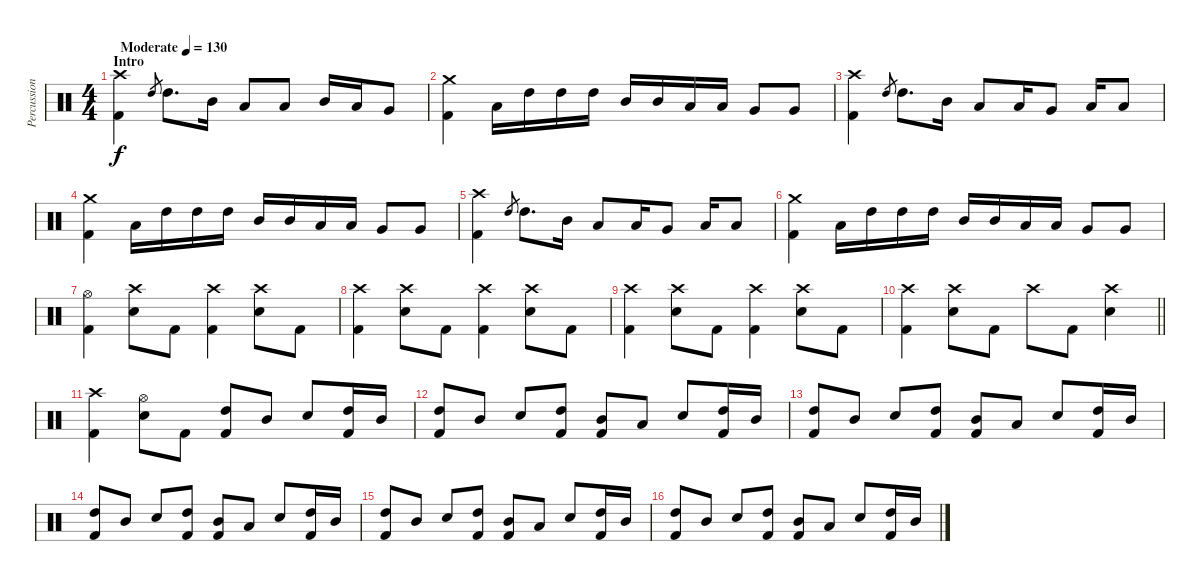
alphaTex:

\track ("Percussion" "Percussion") {instrument percussion}
\staff {score}
\articulation defaults
\ts (4 4)
\section ("" "Intro")
\tempo (130 "Moderate")
\clef neutral
\ks c
("Crash high (hit)" "Kick (hit) 2").4{dy f} "High Tom (hit)".8{gr} "High Tom (hit)".8{d} "Mid Tom (hit)".16 "Low Tom (hit)".8 "Low Tom (hit)".8 "Mid Tom (hit)".16 "Low Tom (hit)".16 "Very Low Tom (hit)".8 |
("Crash medium (hit)" "Kick (hit) 2").4 "Low Tom (hit)".16 "High Tom (hit)".16 "High Tom (hit)".16 "High Tom (hit)".16 "Mid Tom (hit)".16 "Mid Tom (hit)".16 "Low Tom (hit)".16 "Low Tom (hit)".16 "Very Low Tom (hit)".8 "Very Low Tom (hit)".8 |
("Crash high (hit)" "Kick (hit) 2").4 "High Tom (hit)".8{gr} "High Tom (hit)".8{d} "Mid Tom (hit)".16 "Low Tom (hit)".8 "Low Tom (hit)".16 "Very Low Tom (hit)".8 "Low Floor Tom (hit)".16 "Low Floor Tom (hit)".8 |
("Crash medium (hit)" "Kick (hit) 2").4 "Low Tom (hit)".16 "High Tom (hit)".16 "High Tom (hit)".16 "High Tom (hit)".16 "Mid Tom (hit)".16 "Mid Tom (hit)".16 "Low Tom (hit)".16 "Low Tom (hit)".16 "Very Low Tom (hit)".8 "Very Low Tom (hit)".8 |
("Crash high (hit)" "Kick (hit) 2").4 "High Tom (hit)".8{gr} "High Tom (hit)".8{d} "Mid Tom (hit)".16 "Low Tom (hit)".8 "Low Tom (hit)".16 "Very Low Tom (hit)".8 "Low Floor Tom (hit)".16 "Low Floor Tom (hit)".8 |
("Crash medium (hit)" "Kick (hit) 2").4 "Low Tom (hit)".16 "High Tom (hit)".16 "High Tom (hit)".16 "High Tom (hit)".16 "Mid Tom (hit)".16 "Mid Tom (hit)".16 "Low Tom (hit)".16 "Low Tom (hit)".16 "Very Low Tom (hit)".8 "Very Low Tom (hit)".8 |
("Hi-Hat (open)" "Kick (hit) 2").4 ("Crash high (hit)" "Electric Snare (hit)").8 "Kick (hit) 2".8 ("Crash high (hit)" "Kick (hit) 2").4 ("Crash high (hit)" "Electric Snare (hit)").8 "Kick (hit) 2".8 |
("Crash high (hit)" "Kick (hit) 2").4 ("Crash high (hit)" "Electric Snare (hit)").8 "Kick (hit) 2".8 ("Crash high (hit)" "Kick (hit) 2").4 ("Crash high (hit)" "Electric Snare (hit)").8 "Kick (hit) 2".8 |
("Crash high (hit)" "Kick (hit) 2").4 ("Crash high (hit)" "Electric Snare (hit)").8 "Kick (hit) 2".8 ("Crash high (hit)" "Kick (hit) 2").4 ("Crash high (hit)" "Electric Snare (hit)").8 "Kick (hit) 2".8 |
\barLineRight lightlight
("Crash high (hit)" "Kick (hit) 2").4 ("Crash high (hit)" "Electric Snare (hit)").8 "Kick (hit) 2".8 "Crash high (hit)".8 "Kick (hit) 2".8 ("Crash high (hit)" "Electric Snare (hit)").4 |
\section ("" "")
("Crash high (hit)" "Kick (hit) 2").4 ("Hi-Hat (open)" "Electric Snare (hit)").8 "Kick (hit) 2".8 ("High Tom (hit)" "Kick (hit) 2").8 "Mid Tom (hit)".8 "Electric Snare (hit)".8 ("High Tom (hit)" "Kick (hit) 2").16 "Mid Tom (hit)".16 |
("High Tom (hit)" "Kick (hit) 2").8 "Mid Tom (hit)".8 "Electric Snare (hit)".8 ("High Tom (hit)" "Kick (hit) 2").8 ("Mid Tom (hit)" "Kick (hit) 2").8 "Low Tom (hit)".8 "Electric Snare (hit)".8 ("High Tom (hit)" "Kick (hit) 2").16 "Mid Tom (hit)".16 |
("High Tom (hit)" "Kick (hit) 2").8 "Mid Tom (hit)".8 "Electric Snare (hit)".8 ("High Tom (hit)" "Kick (hit) 2").8 ("Mid Tom (hit)" "Kick (hit) 2").8 "Low Tom (hit)".8 "Electric Snare (hit)".8 ("High Tom (hit)" "Kick (hit) 2").16 "Mid Tom (hit)".16 |
("High Tom (hit)" "Kick (hit) 2").8 "Mid Tom (hit)".8 "Electric Snare (hit)".8 ("High Tom (hit)" "Kick (hit) 2").8 ("Mid Tom (hit)" "Kick (hit) 2").8 "Low Tom (hit)".8 "Electric Snare (hit)".8 ("High Tom (hit)" "Kick (hit) 2").16 "Mid Tom (hit)".16 |
("High Tom (hit)" "Kick (hit) 2").8 "Mid Tom (hit)".8 "Electric Snare (hit)".8 ("High Tom (hit)" "Kick (hit) 2").8 ("Mid Tom (hit)" "Kick (hit) 2").8 "Low Tom (hit)".8 "Electric Snare (hit)".8 ("High Tom (hit)" "Kick (hit) 2").16 "Mid Tom (hit)".16 |
("High Tom (hit)" "Kick (hit) 2").8 "Mid Tom (hit)".8 "Electric Snare (hit)".8 ("High Tom (hit)" "Kick (hit) 2").8 ("Mid Tom (hit)" "Kick (hit) 2").8 "Low Tom (hit)".8 "Electric Snare (hit)".8 ("High Tom (hit)" "Kick (hit) 2").16 "Mid Tom (hit)".16
